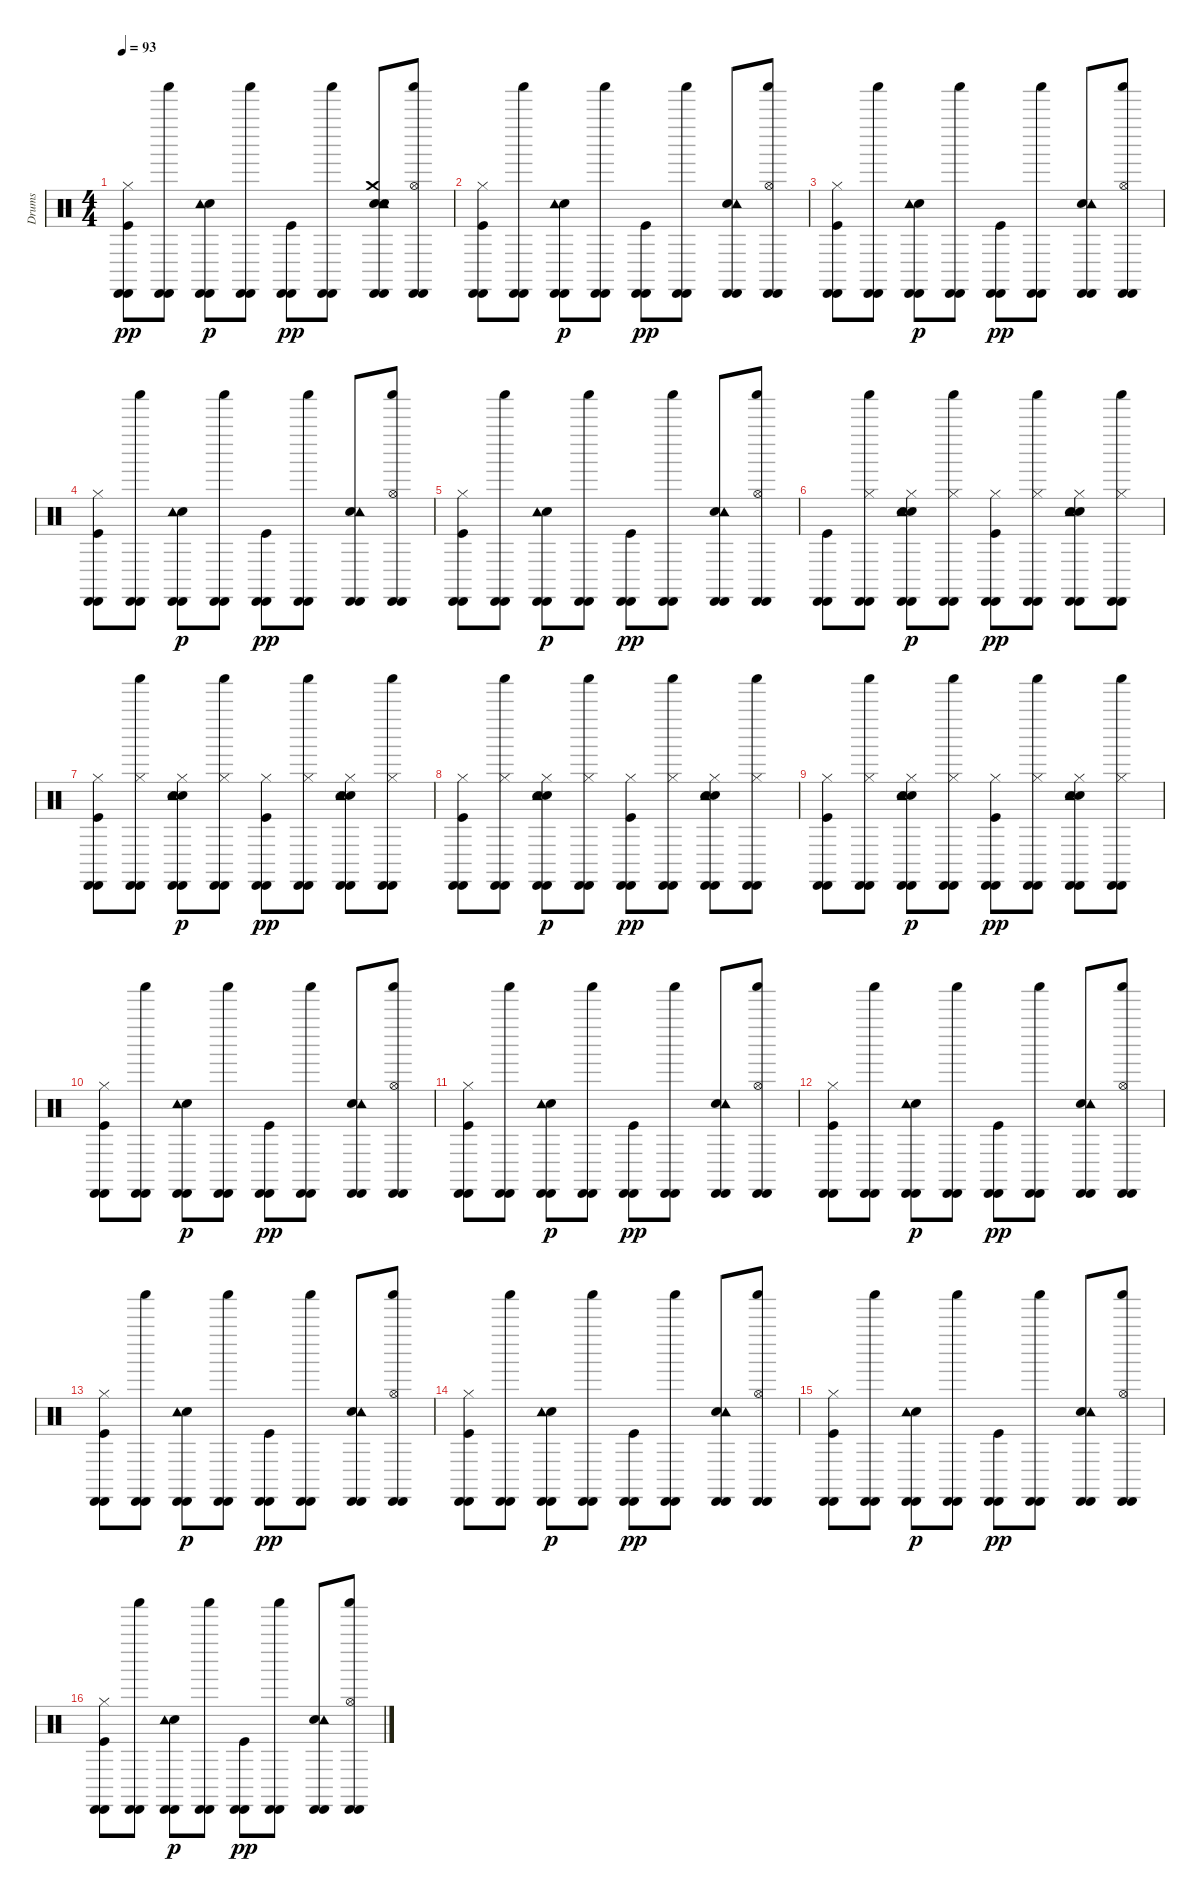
\track ("Drums" "Drums") {instrument percussion}
\staff {score}
\articulation defaults
\ts (4 4)
\tempo 93
\clef neutral
\ks c
("Kick (hit)" "Hi-Hat (closed)" "Cabasa (hit)" "Cabasa (hit)").8{dy pp} ("Cabasa (hit)" "Shaker (hit)" "Cabasa (hit)").8 ("Hand Clap (hit)" "Tambourine (hit)" "Cabasa (hit)" "Cabasa (hit)").8{dy p} ("Cabasa (hit)" "Shaker (hit)" "Cabasa (hit)").8 ("Kick (hit)" "Cabasa (hit)" "Cabasa (hit)").8{dy pp} ("Cabasa (hit)" "Shaker (hit)" "Cabasa (hit)").8 ("Hand Clap (hit)" "Electric Snare (hit)" "Tambourine (hit)" "Crash medium (hit)" "Cabasa (hit)" "Cabasa (hit)").8 ("Cabasa (hit)" "Shaker (hit)" "Hi-Hat (open)" "Cabasa (hit)").8 |
("Kick (hit)" "Hi-Hat (closed)" "Cabasa (hit)" "Cabasa (hit)").8 ("Cabasa (hit)" "Shaker (hit)" "Cabasa (hit)").8 ("Hand Clap (hit)" "Tambourine (hit)" "Cabasa (hit)" "Cabasa (hit)").8{dy p} ("Cabasa (hit)" "Shaker (hit)" "Cabasa (hit)").8 ("Kick (hit)" "Cabasa (hit)" "Cabasa (hit)").8{dy pp} ("Cabasa (hit)" "Shaker (hit)" "Cabasa (hit)").8 ("Hand Clap (hit)" "Tambourine (hit)" "Cabasa (hit)" "Cabasa (hit)").8 ("Cabasa (hit)" "Shaker (hit)" "Hi-Hat (open)" "Cabasa (hit)").8 |
("Kick (hit)" "Hi-Hat (closed)" "Cabasa (hit)" "Cabasa (hit)").8 ("Cabasa (hit)" "Shaker (hit)" "Cabasa (hit)").8 ("Hand Clap (hit)" "Tambourine (hit)" "Cabasa (hit)" "Cabasa (hit)").8{dy p} ("Cabasa (hit)" "Shaker (hit)" "Cabasa (hit)").8 ("Kick (hit)" "Cabasa (hit)" "Cabasa (hit)").8{dy pp} ("Cabasa (hit)" "Shaker (hit)" "Cabasa (hit)").8 ("Hand Clap (hit)" "Tambourine (hit)" "Cabasa (hit)" "Cabasa (hit)").8 ("Cabasa (hit)" "Shaker (hit)" "Hi-Hat (open)" "Cabasa (hit)").8 |
("Kick (hit)" "Hi-Hat (closed)" "Cabasa (hit)" "Cabasa (hit)").8 ("Cabasa (hit)" "Shaker (hit)" "Cabasa (hit)").8 ("Hand Clap (hit)" "Tambourine (hit)" "Cabasa (hit)" "Cabasa (hit)").8{dy p} ("Cabasa (hit)" "Shaker (hit)" "Cabasa (hit)").8 ("Kick (hit)" "Cabasa (hit)" "Cabasa (hit)").8{dy pp} ("Cabasa (hit)" "Shaker (hit)" "Cabasa (hit)").8 ("Hand Clap (hit)" "Tambourine (hit)" "Cabasa (hit)" "Cabasa (hit)").8 ("Cabasa (hit)" "Shaker (hit)" "Hi-Hat (open)" "Cabasa (hit)").8 |
("Kick (hit)" "Hi-Hat (closed)" "Cabasa (hit)" "Cabasa (hit)").8 ("Cabasa (hit)" "Shaker (hit)" "Cabasa (hit)").8 ("Hand Clap (hit)" "Tambourine (hit)" "Cabasa (hit)" "Cabasa (hit)").8{dy p} ("Cabasa (hit)" "Shaker (hit)" "Cabasa (hit)").8 ("Kick (hit)" "Cabasa (hit)" "Cabasa (hit)").8{dy pp} ("Cabasa (hit)" "Shaker (hit)" "Cabasa (hit)").8 ("Hand Clap (hit)" "Tambourine (hit)" "Cabasa (hit)" "Cabasa (hit)").8 ("Cabasa (hit)" "Shaker (hit)" "Hi-Hat (open)" "Cabasa (hit)").8 |
("Kick (hit)" "Cabasa (hit)" "Cabasa (hit)").8 ("Hi-Hat (closed)" "Cabasa (hit)" "Shaker (hit)" "Cabasa (hit)").8 ("Hand Clap (hit)" "Electric Snare (hit)" "Hi-Hat (closed)" "Tambourine (hit)" "Cabasa (hit)" "Cabasa (hit)").8{dy p} ("Hi-Hat (closed)" "Cabasa (hit)" "Shaker (hit)" "Cabasa (hit)").8 ("Kick (hit)" "Hi-Hat (closed)" "Cabasa (hit)" "Cabasa (hit)").8{dy pp} ("Hi-Hat (closed)" "Cabasa (hit)" "Shaker (hit)" "Cabasa (hit)").8 ("Hand Clap (hit)" "Electric Snare (hit)" "Hi-Hat (closed)" "Tambourine (hit)" "Cabasa (hit)" "Cabasa (hit)").8 ("Hi-Hat (closed)" "Cabasa (hit)" "Shaker (hit)" "Cabasa (hit)").8 |
("Kick (hit)" "Hi-Hat (closed)" "Cabasa (hit)" "Cabasa (hit)").8 ("Hi-Hat (closed)" "Cabasa (hit)" "Shaker (hit)" "Cabasa (hit)").8 ("Hand Clap (hit)" "Electric Snare (hit)" "Hi-Hat (closed)" "Tambourine (hit)" "Cabasa (hit)" "Cabasa (hit)").8{dy p} ("Hi-Hat (closed)" "Cabasa (hit)" "Shaker (hit)" "Cabasa (hit)").8 ("Kick (hit)" "Hi-Hat (closed)" "Cabasa (hit)" "Cabasa (hit)").8{dy pp} ("Hi-Hat (closed)" "Cabasa (hit)" "Shaker (hit)" "Cabasa (hit)").8 ("Hand Clap (hit)" "Electric Snare (hit)" "Hi-Hat (closed)" "Tambourine (hit)" "Cabasa (hit)" "Cabasa (hit)").8 ("Hi-Hat (closed)" "Cabasa (hit)" "Shaker (hit)" "Cabasa (hit)").8 |
("Kick (hit)" "Hi-Hat (closed)" "Cabasa (hit)" "Cabasa (hit)").8 ("Hi-Hat (closed)" "Cabasa (hit)" "Shaker (hit)" "Cabasa (hit)").8 ("Hand Clap (hit)" "Electric Snare (hit)" "Hi-Hat (closed)" "Tambourine (hit)" "Cabasa (hit)" "Cabasa (hit)").8{dy p} ("Hi-Hat (closed)" "Cabasa (hit)" "Shaker (hit)" "Cabasa (hit)").8 ("Kick (hit)" "Hi-Hat (closed)" "Cabasa (hit)" "Cabasa (hit)").8{dy pp} ("Hi-Hat (closed)" "Cabasa (hit)" "Shaker (hit)" "Cabasa (hit)").8 ("Hand Clap (hit)" "Electric Snare (hit)" "Hi-Hat (closed)" "Tambourine (hit)" "Cabasa (hit)" "Cabasa (hit)").8 ("Hi-Hat (closed)" "Cabasa (hit)" "Shaker (hit)" "Cabasa (hit)").8 |
("Kick (hit)" "Hi-Hat (closed)" "Cabasa (hit)" "Cabasa (hit)").8 ("Hi-Hat (closed)" "Cabasa (hit)" "Shaker (hit)" "Cabasa (hit)").8 ("Hand Clap (hit)" "Electric Snare (hit)" "Hi-Hat (closed)" "Tambourine (hit)" "Cabasa (hit)" "Cabasa (hit)").8{dy p} ("Hi-Hat (closed)" "Cabasa (hit)" "Shaker (hit)" "Cabasa (hit)").8 ("Kick (hit)" "Hi-Hat (closed)" "Cabasa (hit)" "Cabasa (hit)").8{dy pp} ("Hi-Hat (closed)" "Cabasa (hit)" "Shaker (hit)" "Cabasa (hit)").8 ("Hand Clap (hit)" "Electric Snare (hit)" "Hi-Hat (closed)" "Tambourine (hit)" "Cabasa (hit)" "Cabasa (hit)").8 ("Hi-Hat (closed)" "Cabasa (hit)" "Shaker (hit)" "Cabasa (hit)").8 |
("Kick (hit)" "Hi-Hat (closed)" "Cabasa (hit)" "Cabasa (hit)").8 ("Cabasa (hit)" "Shaker (hit)" "Cabasa (hit)").8 ("Hand Clap (hit)" "Tambourine (hit)" "Cabasa (hit)" "Cabasa (hit)").8{dy p} ("Cabasa (hit)" "Shaker (hit)" "Cabasa (hit)").8 ("Kick (hit)" "Cabasa (hit)" "Cabasa (hit)").8{dy pp} ("Cabasa (hit)" "Shaker (hit)" "Cabasa (hit)").8 ("Hand Clap (hit)" "Tambourine (hit)" "Cabasa (hit)" "Cabasa (hit)").8 ("Cabasa (hit)" "Shaker (hit)" "Hi-Hat (open)" "Cabasa (hit)").8 |
("Kick (hit)" "Hi-Hat (closed)" "Cabasa (hit)" "Cabasa (hit)").8 ("Cabasa (hit)" "Shaker (hit)" "Cabasa (hit)").8 ("Hand Clap (hit)" "Tambourine (hit)" "Cabasa (hit)" "Cabasa (hit)").8{dy p} ("Cabasa (hit)" "Shaker (hit)" "Cabasa (hit)").8 ("Kick (hit)" "Cabasa (hit)" "Cabasa (hit)").8{dy pp} ("Cabasa (hit)" "Shaker (hit)" "Cabasa (hit)").8 ("Hand Clap (hit)" "Tambourine (hit)" "Cabasa (hit)" "Cabasa (hit)").8 ("Cabasa (hit)" "Shaker (hit)" "Hi-Hat (open)" "Cabasa (hit)").8 |
("Kick (hit)" "Hi-Hat (closed)" "Cabasa (hit)" "Cabasa (hit)").8 ("Cabasa (hit)" "Shaker (hit)" "Cabasa (hit)").8 ("Hand Clap (hit)" "Tambourine (hit)" "Cabasa (hit)" "Cabasa (hit)").8{dy p} ("Cabasa (hit)" "Shaker (hit)" "Cabasa (hit)").8 ("Kick (hit)" "Cabasa (hit)" "Cabasa (hit)").8{dy pp} ("Cabasa (hit)" "Shaker (hit)" "Cabasa (hit)").8 ("Hand Clap (hit)" "Tambourine (hit)" "Cabasa (hit)" "Cabasa (hit)").8 ("Cabasa (hit)" "Shaker (hit)" "Hi-Hat (open)" "Cabasa (hit)").8 |
("Kick (hit)" "Hi-Hat (closed)" "Cabasa (hit)" "Cabasa (hit)").8 ("Cabasa (hit)" "Shaker (hit)" "Cabasa (hit)").8 ("Hand Clap (hit)" "Tambourine (hit)" "Cabasa (hit)" "Cabasa (hit)").8{dy p} ("Cabasa (hit)" "Shaker (hit)" "Cabasa (hit)").8 ("Kick (hit)" "Cabasa (hit)" "Cabasa (hit)").8{dy pp} ("Cabasa (hit)" "Shaker (hit)" "Cabasa (hit)").8 ("Hand Clap (hit)" "Tambourine (hit)" "Cabasa (hit)" "Cabasa (hit)").8 ("Cabasa (hit)" "Shaker (hit)" "Hi-Hat (open)" "Cabasa (hit)").8 |
("Kick (hit)" "Hi-Hat (closed)" "Cabasa (hit)" "Cabasa (hit)").8 ("Cabasa (hit)" "Shaker (hit)" "Cabasa (hit)").8 ("Hand Clap (hit)" "Tambourine (hit)" "Cabasa (hit)" "Cabasa (hit)").8{dy p} ("Cabasa (hit)" "Shaker (hit)" "Cabasa (hit)").8 ("Kick (hit)" "Cabasa (hit)" "Cabasa (hit)").8{dy pp} ("Cabasa (hit)" "Shaker (hit)" "Cabasa (hit)").8 ("Hand Clap (hit)" "Tambourine (hit)" "Cabasa (hit)" "Cabasa (hit)").8 ("Cabasa (hit)" "Shaker (hit)" "Hi-Hat (open)" "Cabasa (hit)").8 |
("Kick (hit)" "Hi-Hat (closed)" "Cabasa (hit)" "Cabasa (hit)").8 ("Cabasa (hit)" "Shaker (hit)" "Cabasa (hit)").8 ("Hand Clap (hit)" "Tambourine (hit)" "Cabasa (hit)" "Cabasa (hit)").8{dy p} ("Cabasa (hit)" "Shaker (hit)" "Cabasa (hit)").8 ("Kick (hit)" "Cabasa (hit)" "Cabasa (hit)").8{dy pp} ("Cabasa (hit)" "Shaker (hit)" "Cabasa (hit)").8 ("Hand Clap (hit)" "Tambourine (hit)" "Cabasa (hit)" "Cabasa (hit)").8 ("Cabasa (hit)" "Shaker (hit)" "Hi-Hat (open)" "Cabasa (hit)").8 |
("Kick (hit)" "Hi-Hat (closed)" "Cabasa (hit)" "Cabasa (hit)").8 ("Cabasa (hit)" "Shaker (hit)" "Cabasa (hit)").8 ("Hand Clap (hit)" "Tambourine (hit)" "Cabasa (hit)" "Cabasa (hit)").8{dy p} ("Cabasa (hit)" "Shaker (hit)" "Cabasa (hit)").8 ("Kick (hit)" "Cabasa (hit)" "Cabasa (hit)").8{dy pp} ("Cabasa (hit)" "Shaker (hit)" "Cabasa (hit)").8 ("Hand Clap (hit)" "Tambourine (hit)" "Cabasa (hit)" "Cabasa (hit)").8 ("Cabasa (hit)" "Shaker (hit)" "Hi-Hat (open)" "Cabasa (hit)").8
